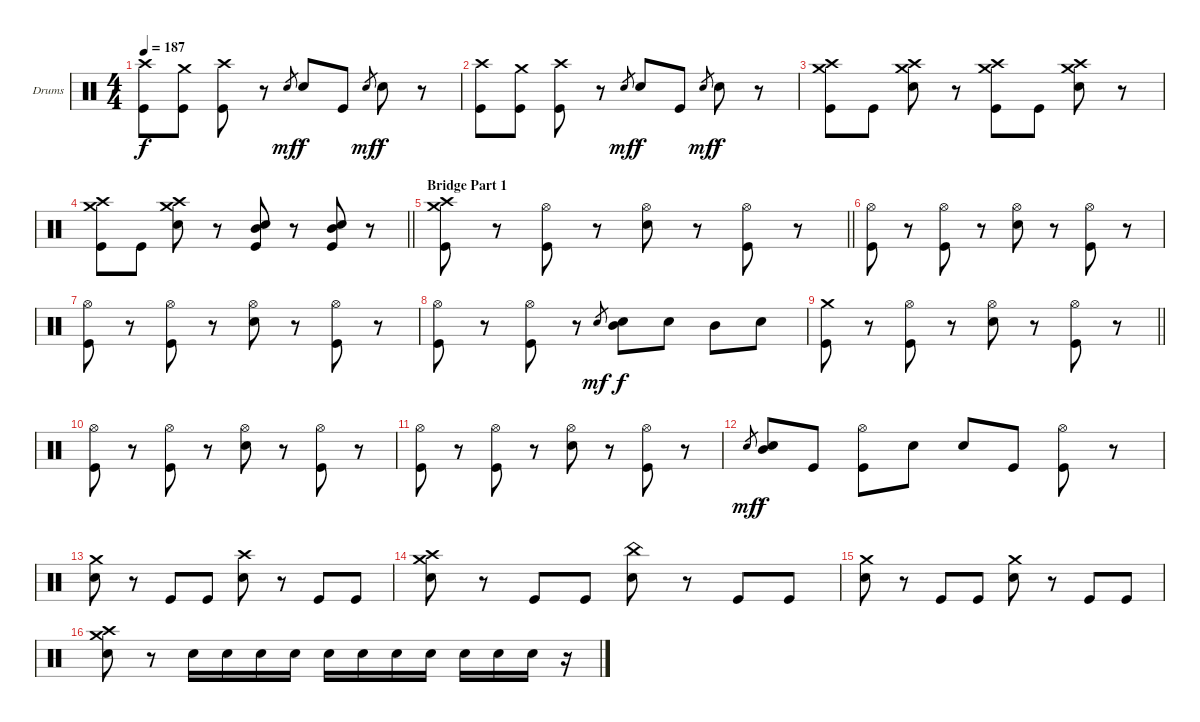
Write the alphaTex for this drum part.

\bracketExtendMode groupsimilarinstruments
\firstSystemTrackNameOrientation horizontal
\otherSystemsTrackNameOrientation horizontal
\track ("Rian Dawson" "Drums") {instrument percussion}
\staff {score}
\articulation defaults
\ts (4 4)
\tempo 187
\clef neutral
\ks c
("Crash high (hit)" "Kick (hit)").8{dy f} ("Crash medium (hit)" "Kick (hit)").8 ("Crash high (hit)" "Kick (hit)").8 r.8 "Snare (hit) 2".8{gr dy mf} "Snare (hit) 2".8{dy f} "Kick (hit)".8 "Snare (hit) 2".8{gr dy mf} "Snare (hit) 2".8{dy f} r.8 |
("Crash high (hit)" "Kick (hit)").8 ("Crash medium (hit)" "Kick (hit)").8 ("Crash high (hit)" "Kick (hit)").8 r.8 "Snare (hit) 2".8{gr dy mf} "Snare (hit) 2".8{dy f} "Kick (hit)".8 "Snare (hit) 2".8{gr dy mf} "Snare (hit) 2".8{dy f} r.8 |
("Crash medium (hit)" "Crash high (hit)" "Kick (hit)").8 "Kick (hit)".8 ("Crash medium (hit)" "Crash high (hit)" "Snare (hit) 2").8 r.8 ("Crash medium (hit)" "Crash high (hit)" "Kick (hit)").8 "Kick (hit)".8 ("Crash medium (hit)" "Crash high (hit)" "Snare (hit) 2").8 r.8 |
\barLineRight lightlight
("Crash medium (hit)" "Crash high (hit)" "Kick (hit)").8 "Kick (hit)".8 ("Crash medium (hit)" "Crash high (hit)" "Snare (hit) 2").8 r.8 ("Snare (hit) 2" "Mid Tom (hit)" "Kick (hit)").8 r.8 ("Snare (hit) 2" "Mid Tom (hit)" "Kick (hit)").8 r.8 |
\section ("" "Bridge Part 1")
\barLineRight lightlight
("Crash medium (hit)" "Crash high (hit)" "Kick (hit)").8 r.8 ("Hi-Hat (open)" "Kick (hit)").8 r.8 ("Hi-Hat (open)" "Snare (hit) 2").8 r.8 ("Hi-Hat (open)" "Kick (hit)").8 r.8 |
("Hi-Hat (open)" "Kick (hit)").8 r.8 ("Hi-Hat (open)" "Kick (hit)").8 r.8 ("Hi-Hat (open)" "Snare (hit) 2").8 r.8 ("Hi-Hat (open)" "Kick (hit)").8 r.8 |
("Hi-Hat (open)" "Kick (hit)").8 r.8 ("Hi-Hat (open)" "Kick (hit)").8 r.8 ("Hi-Hat (open)" "Snare (hit) 2").8 r.8 ("Hi-Hat (open)" "Kick (hit)").8 r.8 |
("Hi-Hat (open)" "Kick (hit)").8 r.8 ("Hi-Hat (open)" "Kick (hit)").8 r.8 "Snare (hit) 2".8{gr dy mf} ("Snare (hit) 2" "Mid Tom (hit)").8{dy f} "Snare (hit) 2".8 "Mid Tom (hit)".8 "Snare (hit) 2".8 |
\barLineRight lightlight
("Crash medium (hit)" "Kick (hit)").8 r.8 ("Hi-Hat (open)" "Kick (hit)").8 r.8 ("Hi-Hat (open)" "Snare (hit) 2").8 r.8 ("Hi-Hat (open)" "Kick (hit)").8 r.8 |
("Hi-Hat (open)" "Kick (hit)").8 r.8 ("Hi-Hat (open)" "Kick (hit)").8 r.8 ("Hi-Hat (open)" "Snare (hit) 2").8 r.8 ("Hi-Hat (open)" "Kick (hit)").8 r.8 |
("Hi-Hat (open)" "Kick (hit)").8 r.8 ("Hi-Hat (open)" "Kick (hit)").8 r.8 ("Hi-Hat (open)" "Snare (hit) 2").8 r.8 ("Hi-Hat (open)" "Kick (hit)").8 r.8 |
"Snare (hit) 2".8{gr dy mf} ("Snare (hit) 2" "Mid Tom (hit)").8{dy f} "Kick (hit)".8 ("Hi-Hat (open)" "Kick (hit)").8 "Snare (hit) 2".8 "Snare (hit) 2".8 "Kick (hit)".8 ("Hi-Hat (open)" "Kick (hit)").8 r.8 |
("Crash medium (hit)" "Snare (hit) 2").8 r.8 "Kick (hit)".8 "Kick (hit)".8 ("Crash high (hit)" "Snare (hit) 2").8 r.8 "Kick (hit)".8 "Kick (hit)".8 |
("Crash medium (hit)" "Crash high (hit)" "Snare (hit) 2").8 r.8 "Kick (hit)".8 "Kick (hit)".8 ("China (hit)" "Snare (hit) 2").8 r.8 "Kick (hit)".8 "Kick (hit)".8 |
("Crash medium (hit)" "Snare (hit) 2").8 r.8 "Kick (hit)".8 "Kick (hit)".8 ("Crash medium (hit)" "Snare (hit) 2").8 r.8 "Kick (hit)".8 "Kick (hit)".8 |
("Crash medium (hit)" "Crash high (hit)" "Snare (hit) 2").8 r.8 "Snare (hit) 2".16 "Snare (hit) 2".16 "Snare (hit) 2".16 "Snare (hit) 2".16 "Snare (hit) 2".16 "Snare (hit) 2".16 "Snare (hit) 2".16 "Snare (hit) 2".16 "Snare (hit) 2".16 "Snare (hit) 2".16 "Snare (hit) 2".16 r.16
